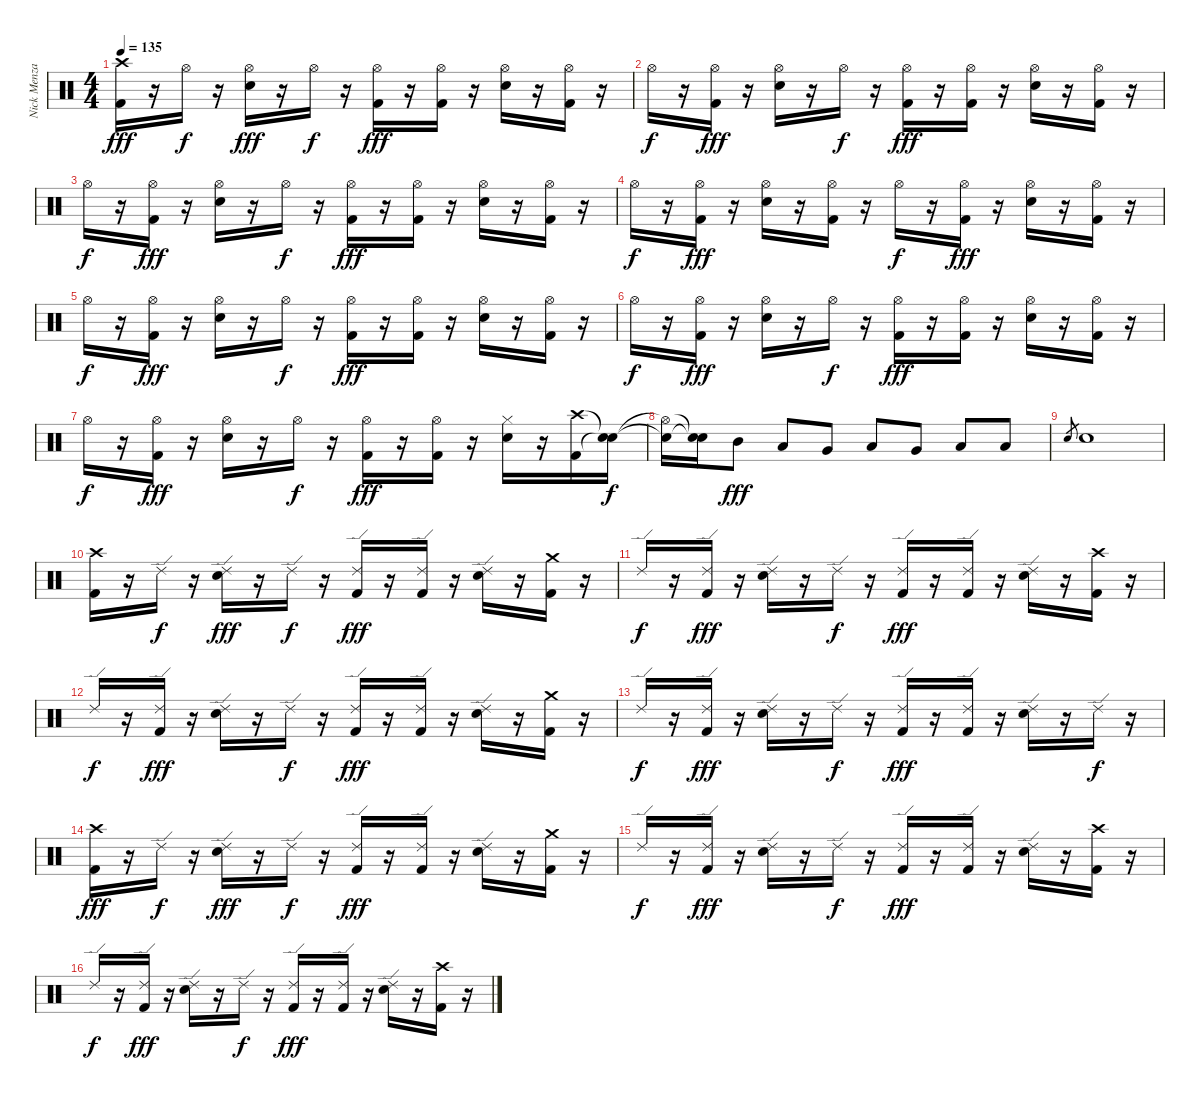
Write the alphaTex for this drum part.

\track ("Nick Menza" "Nick Menza") {instrument percussion}
\staff {score}
\articulation defaults
\ts (4 4)
\tempo 135
\clef neutral
\ks c
("Kick (hit) 2" "Crash high (hit)").16{dy fff} r.16 "Hi-Hat (open)".16{dy f} r.16 ("Electric Snare (hit)" "Hi-Hat (open)").16{dy fff} r.16 "Hi-Hat (open)".16{dy f} r.16 ("Kick (hit) 2" "Hi-Hat (open)").16{dy fff} r.16 ("Kick (hit) 2" "Hi-Hat (open)").16 r.16 ("Electric Snare (hit)" "Hi-Hat (open)").16 r.16 ("Kick (hit) 2" "Hi-Hat (open)").16 r.16 |
"Hi-Hat (open)".16{dy f} r.16 ("Kick (hit) 2" "Hi-Hat (open)").16{dy fff} r.16 ("Electric Snare (hit)" "Hi-Hat (open)").16 r.16 "Hi-Hat (open)".16{dy f} r.16 ("Kick (hit) 2" "Hi-Hat (open)").16{dy fff} r.16 ("Kick (hit) 2" "Hi-Hat (open)").16 r.16 ("Electric Snare (hit)" "Hi-Hat (open)").16 r.16 ("Kick (hit) 2" "Hi-Hat (open)").16 r.16 |
"Hi-Hat (open)".16{dy f} r.16 ("Kick (hit) 2" "Hi-Hat (open)").16{dy fff} r.16 ("Electric Snare (hit)" "Hi-Hat (open)").16 r.16 "Hi-Hat (open)".16{dy f} r.16 ("Kick (hit) 2" "Hi-Hat (open)").16{dy fff} r.16 ("Kick (hit) 2" "Hi-Hat (open)").16 r.16 ("Electric Snare (hit)" "Hi-Hat (open)").16 r.16 ("Kick (hit) 2" "Hi-Hat (open)").16 r.16 |
"Hi-Hat (open)".16{dy f} r.16 ("Kick (hit) 2" "Hi-Hat (open)").16{dy fff} r.16 ("Electric Snare (hit)" "Hi-Hat (open)").16 r.16 ("Kick (hit) 2" "Hi-Hat (open)").16 r.16 "Hi-Hat (open)".16{dy f} r.16 ("Kick (hit) 2" "Hi-Hat (open)").16{dy fff} r.16 ("Electric Snare (hit)" "Hi-Hat (open)").16 r.16 ("Kick (hit) 2" "Hi-Hat (open)").16 r.16 |
"Hi-Hat (open)".16{dy f} r.16 ("Kick (hit) 2" "Hi-Hat (open)").16{dy fff} r.16 ("Electric Snare (hit)" "Hi-Hat (open)").16 r.16 "Hi-Hat (open)".16{dy f} r.16 ("Kick (hit) 2" "Hi-Hat (open)").16{dy fff} r.16 ("Kick (hit) 2" "Hi-Hat (open)").16 r.16 ("Electric Snare (hit)" "Hi-Hat (open)").16 r.16 ("Kick (hit) 2" "Hi-Hat (open)").16 r.16 |
"Hi-Hat (open)".16{dy f} r.16 ("Kick (hit) 2" "Hi-Hat (open)").16{dy fff} r.16 ("Electric Snare (hit)" "Hi-Hat (open)").16 r.16 "Hi-Hat (open)".16{dy f} r.16 ("Kick (hit) 2" "Hi-Hat (open)").16{dy fff} r.16 ("Kick (hit) 2" "Hi-Hat (open)").16 r.16 ("Electric Snare (hit)" "Hi-Hat (open)").16 r.16 ("Kick (hit) 2" "Hi-Hat (open)").16 r.16 |
"Hi-Hat (open)".16{dy f} r.16 ("Kick (hit) 2" "Hi-Hat (open)").16{dy fff} r.16 ("Electric Snare (hit)" "Hi-Hat (open)").16 r.16 "Hi-Hat (open)".16{dy f} r.16 ("Kick (hit) 2" "Hi-Hat (open)").16{dy fff} r.16 ("Kick (hit) 2" "Hi-Hat (open)").16 r.16 ("Electric Snare (hit)" "Hi-Hat (closed)").16 r.16 ("Kick (hit) 2" "Crash high (hit)").16 ("Snare (hit)"{t} "Snare (hit)"{t}).16{dy f} |
("Snare (hit)"{t} "Hi-Hat (open)"{t}).16 ("Snare (hit)"{t} "Snare (hit)"{t}).16 "Mid Tom (hit)".8{dy fff} "Low Tom (hit)".8 "Very Low Tom (hit)".8 "Low Tom (hit)".8 "Very Low Tom (hit)".8 "Low Floor Tom (hit)".8 "Low Floor Tom (hit)".8 |
"Electric Snare (hit)".8{gr} "Electric Snare (hit)".1 |
("Kick (hit) 2" "Crash high (hit)").16 r.16 "Ride (edge) 2".16{dy f} r.16 ("Electric Snare (hit)" "Ride (edge) 2").16{dy fff} r.16 "Ride (edge) 2".16{dy f} r.16 ("Kick (hit) 2" "Ride (edge) 2").16{dy fff} r.16 ("Kick (hit) 2" "Ride (edge) 2").16 r.16 ("Electric Snare (hit)" "Ride (edge) 2").16 r.16 ("Kick (hit) 2" "Crash medium (hit)").16 r.16 |
"Ride (edge) 2".16{dy f} r.16 ("Kick (hit) 2" "Ride (edge) 2").16{dy fff} r.16 ("Electric Snare (hit)" "Ride (edge) 2").16 r.16 "Ride (edge) 2".16{dy f} r.16 ("Kick (hit) 2" "Ride (edge) 2").16{dy fff} r.16 ("Kick (hit) 2" "Ride (edge) 2").16 r.16 ("Electric Snare (hit)" "Ride (edge) 2").16 r.16 ("Kick (hit) 2" "Crash high (hit)").16 r.16 |
"Ride (edge) 2".16{dy f} r.16 ("Kick (hit) 2" "Ride (edge) 2").16{dy fff} r.16 ("Electric Snare (hit)" "Ride (edge) 2").16 r.16 "Ride (edge) 2".16{dy f} r.16 ("Kick (hit) 2" "Ride (edge) 2").16{dy fff} r.16 ("Kick (hit) 2" "Ride (edge) 2").16 r.16 ("Electric Snare (hit)" "Ride (edge) 2").16 r.16 ("Kick (hit) 2" "Crash medium (hit)").16 r.16 |
"Ride (edge) 2".16{dy f} r.16 ("Kick (hit) 2" "Ride (edge) 2").16{dy fff} r.16 ("Electric Snare (hit)" "Ride (edge) 2").16 r.16 "Ride (edge) 2".16{dy f} r.16 ("Kick (hit) 2" "Ride (edge) 2").16{dy fff} r.16 ("Kick (hit) 2" "Ride (edge) 2").16 r.16 ("Electric Snare (hit)" "Ride (edge) 2").16 r.16 "Ride (edge) 2".16{dy f} r.16 |
("Kick (hit) 2" "Crash high (hit)").16{dy fff} r.16 "Ride (edge) 2".16{dy f} r.16 ("Electric Snare (hit)" "Ride (edge) 2").16{dy fff} r.16 "Ride (edge) 2".16{dy f} r.16 ("Kick (hit) 2" "Ride (edge) 2").16{dy fff} r.16 ("Kick (hit) 2" "Ride (edge) 2").16 r.16 ("Electric Snare (hit)" "Ride (edge) 2").16 r.16 ("Kick (hit) 2" "Crash medium (hit)").16 r.16 |
"Ride (edge) 2".16{dy f} r.16 ("Kick (hit) 2" "Ride (edge) 2").16{dy fff} r.16 ("Electric Snare (hit)" "Ride (edge) 2").16 r.16 "Ride (edge) 2".16{dy f} r.16 ("Kick (hit) 2" "Ride (edge) 2").16{dy fff} r.16 ("Kick (hit) 2" "Ride (edge) 2").16 r.16 ("Electric Snare (hit)" "Ride (edge) 2").16 r.16 ("Kick (hit) 2" "Crash high (hit)").16 r.16 |
"Ride (edge) 2".16{dy f} r.16 ("Kick (hit) 2" "Ride (edge) 2").16{dy fff} r.16 ("Electric Snare (hit)" "Ride (edge) 2").16 r.16 "Ride (edge) 2".16{dy f} r.16 ("Kick (hit) 2" "Ride (edge) 2").16{dy fff} r.16 ("Kick (hit) 2" "Ride (edge) 2").16 r.16 ("Electric Snare (hit)" "Ride (edge) 2").16 r.16 ("Kick (hit) 2" "Crash high (hit)").16 r.16
